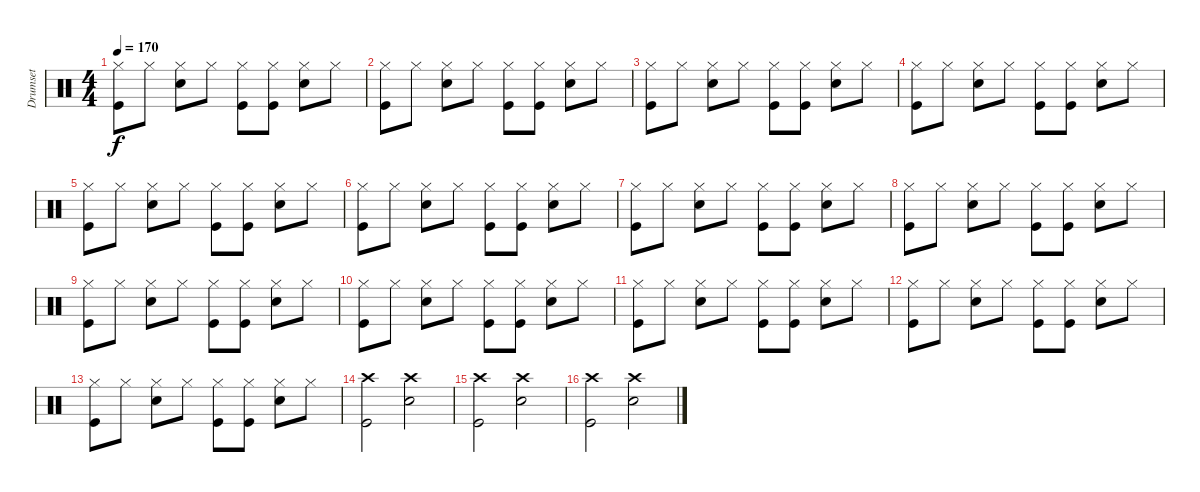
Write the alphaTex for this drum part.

\track ("Drumset" "Drumset") {instrument percussion}
\staff {score}
\articulation defaults
\ts (4 4)
\tempo 170
\clef neutral
\ks c
("Hi-Hat (closed)" "Kick (hit)").8{dy f} "Hi-Hat (closed)".8 ("Hi-Hat (closed)" "Snare (hit) 2").8 "Hi-Hat (closed)".8 ("Hi-Hat (closed)" "Kick (hit)").8 ("Hi-Hat (closed)" "Kick (hit)").8 ("Hi-Hat (closed)" "Snare (hit) 2").8 "Hi-Hat (closed)".8 |
("Hi-Hat (closed)" "Kick (hit)").8 "Hi-Hat (closed)".8 ("Hi-Hat (closed)" "Snare (hit) 2").8 "Hi-Hat (closed)".8 ("Hi-Hat (closed)" "Kick (hit)").8 ("Hi-Hat (closed)" "Kick (hit)").8 ("Hi-Hat (closed)" "Snare (hit) 2").8 "Hi-Hat (closed)".8 |
("Hi-Hat (closed)" "Kick (hit)").8 "Hi-Hat (closed)".8 ("Hi-Hat (closed)" "Snare (hit) 2").8 "Hi-Hat (closed)".8 ("Hi-Hat (closed)" "Kick (hit)").8 ("Hi-Hat (closed)" "Kick (hit)").8 ("Hi-Hat (closed)" "Snare (hit) 2").8 "Hi-Hat (closed)".8 |
("Hi-Hat (closed)" "Kick (hit)").8 "Hi-Hat (closed)".8 ("Hi-Hat (closed)" "Snare (hit) 2").8 "Hi-Hat (closed)".8 ("Hi-Hat (closed)" "Kick (hit)").8 ("Hi-Hat (closed)" "Kick (hit)").8 ("Hi-Hat (closed)" "Snare (hit) 2").8 "Hi-Hat (closed)".8 |
("Hi-Hat (closed)" "Kick (hit)").8 "Hi-Hat (closed)".8 ("Hi-Hat (closed)" "Snare (hit) 2").8 "Hi-Hat (closed)".8 ("Hi-Hat (closed)" "Kick (hit)").8 ("Hi-Hat (closed)" "Kick (hit)").8 ("Hi-Hat (closed)" "Snare (hit) 2").8 "Hi-Hat (closed)".8 |
("Hi-Hat (closed)" "Kick (hit)").8 "Hi-Hat (closed)".8 ("Hi-Hat (closed)" "Snare (hit) 2").8 "Hi-Hat (closed)".8 ("Hi-Hat (closed)" "Kick (hit)").8 ("Hi-Hat (closed)" "Kick (hit)").8 ("Hi-Hat (closed)" "Snare (hit) 2").8 "Hi-Hat (closed)".8 |
("Hi-Hat (closed)" "Kick (hit)").8 "Hi-Hat (closed)".8 ("Hi-Hat (closed)" "Snare (hit) 2").8 "Hi-Hat (closed)".8 ("Hi-Hat (closed)" "Kick (hit)").8 ("Hi-Hat (closed)" "Kick (hit)").8 ("Hi-Hat (closed)" "Snare (hit) 2").8 "Hi-Hat (closed)".8 |
("Hi-Hat (closed)" "Kick (hit)").8 "Hi-Hat (closed)".8 ("Hi-Hat (closed)" "Snare (hit) 2").8 "Hi-Hat (closed)".8 ("Hi-Hat (closed)" "Kick (hit)").8 ("Hi-Hat (closed)" "Kick (hit)").8 ("Hi-Hat (closed)" "Snare (hit) 2").8 "Hi-Hat (closed)".8 |
("Hi-Hat (closed)" "Kick (hit)").8 "Hi-Hat (closed)".8 ("Hi-Hat (closed)" "Snare (hit) 2").8 "Hi-Hat (closed)".8 ("Hi-Hat (closed)" "Kick (hit)").8 ("Hi-Hat (closed)" "Kick (hit)").8 ("Hi-Hat (closed)" "Snare (hit) 2").8 "Hi-Hat (closed)".8 |
("Hi-Hat (closed)" "Kick (hit)").8 "Hi-Hat (closed)".8 ("Hi-Hat (closed)" "Snare (hit) 2").8 "Hi-Hat (closed)".8 ("Hi-Hat (closed)" "Kick (hit)").8 ("Hi-Hat (closed)" "Kick (hit)").8 ("Hi-Hat (closed)" "Snare (hit) 2").8 "Hi-Hat (closed)".8 |
("Hi-Hat (closed)" "Kick (hit)").8 "Hi-Hat (closed)".8 ("Hi-Hat (closed)" "Snare (hit) 2").8 "Hi-Hat (closed)".8 ("Hi-Hat (closed)" "Kick (hit)").8 ("Hi-Hat (closed)" "Kick (hit)").8 ("Hi-Hat (closed)" "Snare (hit) 2").8 "Hi-Hat (closed)".8 |
("Hi-Hat (closed)" "Kick (hit)").8 "Hi-Hat (closed)".8 ("Hi-Hat (closed)" "Snare (hit) 2").8 "Hi-Hat (closed)".8 ("Hi-Hat (closed)" "Kick (hit)").8 ("Hi-Hat (closed)" "Kick (hit)").8 ("Hi-Hat (closed)" "Snare (hit) 2").8 "Hi-Hat (closed)".8 |
("Hi-Hat (closed)" "Kick (hit)").8 "Hi-Hat (closed)".8 ("Hi-Hat (closed)" "Snare (hit) 2").8 "Hi-Hat (closed)".8 ("Hi-Hat (closed)" "Kick (hit)").8 ("Hi-Hat (closed)" "Kick (hit)").8 ("Hi-Hat (closed)" "Snare (hit) 2").8 "Hi-Hat (closed)".8 |
("Crash high (hit)" "Kick (hit)").2 ("Crash high (hit)" "Snare (hit) 2").2 |
("Crash high (hit)" "Kick (hit)").2 ("Crash high (hit)" "Snare (hit) 2").2 |
("Crash high (hit)" "Kick (hit)").2 ("Crash high (hit)" "Snare (hit) 2").2
